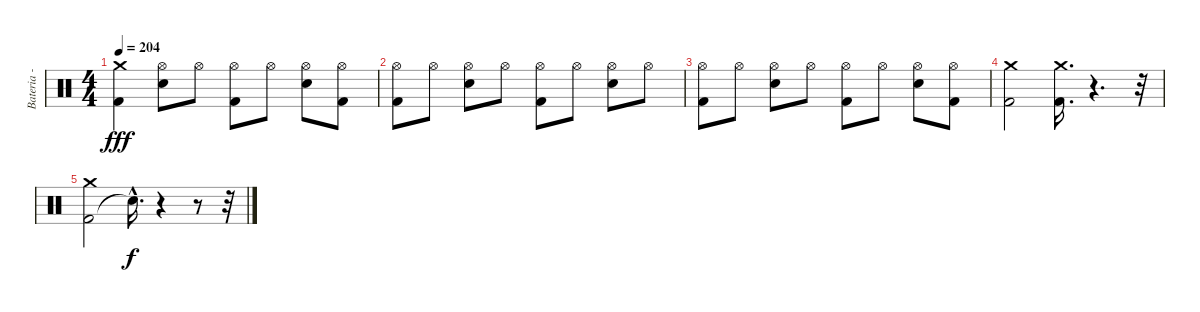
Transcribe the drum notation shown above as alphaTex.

\track ("Bateria - Larzon" "Bateria - ") {instrument percussion}
\staff {score}
\articulation defaults
\ts (4 4)
\tempo 204
\clef neutral
\ks c
("Crash medium (hit)" "Kick (hit) 2").4{dy fff} ("Hi-Hat (open)" "Electric Snare (hit)").8 "Hi-Hat (open)".8 ("Kick (hit) 2" "Hi-Hat (open)").8 "Hi-Hat (open)".8 ("Electric Snare (hit)" "Hi-Hat (open)").8 ("Kick (hit) 2" "Hi-Hat (open)").8 |
("Kick (hit) 2" "Hi-Hat (open)").8 "Hi-Hat (open)".8 ("Electric Snare (hit)" "Hi-Hat (open)").8 "Hi-Hat (open)".8 ("Kick (hit) 2" "Hi-Hat (open)").8 "Hi-Hat (open)".8 ("Electric Snare (hit)" "Hi-Hat (open)").8 "Hi-Hat (open)".8 |
("Kick (hit) 2" "Hi-Hat (open)").8 "Hi-Hat (open)".8 ("Electric Snare (hit)" "Hi-Hat (open)").8 "Hi-Hat (open)".8 ("Kick (hit) 2" "Hi-Hat (open)").8 "Hi-Hat (open)".8 ("Electric Snare (hit)" "Hi-Hat (open)").8 ("Kick (hit) 2" "Hi-Hat (open)").8 |
("Kick (hit) 2" "Crash medium (hit)").2 ("Kick (hit) 2" "Crash medium (hit)").16{d} r.4{d} r.32 |
("Kick (hit) 2" "Crash medium (hit)").2 "Snare (hit)"{hac t}.16{d dy f} r.4 r.8 r.32
